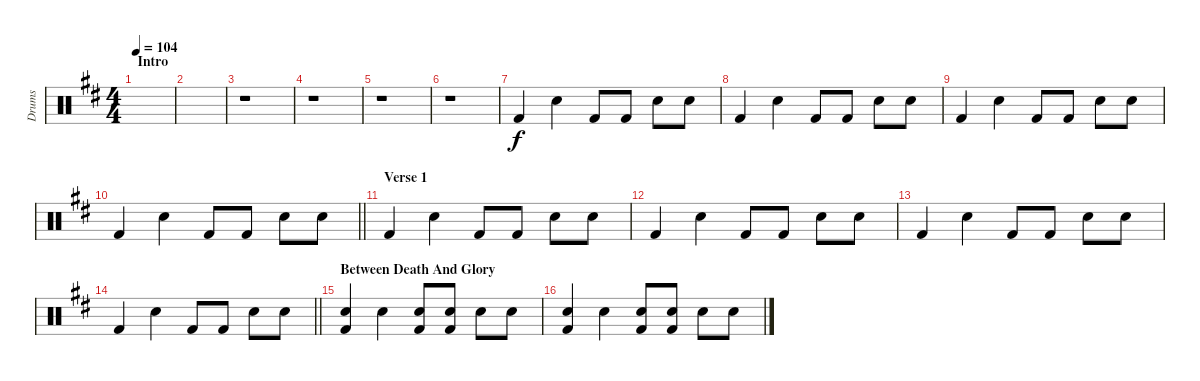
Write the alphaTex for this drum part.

\track ("Drums" "Drums") {instrument percussion}
\staff {score}
\articulation defaults
\ts (4 4)
\section ("" "Intro")
\tempo 104
\clef neutral
\ks d
|
|
r.1 |
r.1 |
r.1 |
r.1 |
"Kick (hit) 2".4 "Electric Snare (hit)".4 "Kick (hit) 2".8 "Kick (hit) 2".8 "Electric Snare (hit)".8 "Electric Snare (hit)".8 |
"Kick (hit) 2".4 "Electric Snare (hit)".4 "Kick (hit) 2".8 "Kick (hit) 2".8 "Electric Snare (hit)".8 "Electric Snare (hit)".8 |
"Kick (hit) 2".4 "Electric Snare (hit)".4 "Kick (hit) 2".8 "Kick (hit) 2".8 "Electric Snare (hit)".8 "Electric Snare (hit)".8 |
\barLineRight lightlight "Kick (hit) 2".4 "Electric Snare (hit)".4 "Kick (hit) 2".8 "Kick (hit) 2".8 "Electric Snare (hit)".8 "Electric Snare (hit)".8
|
\section ("" "Verse 1")
"Kick (hit) 2".4 "Electric Snare (hit)".4 "Kick (hit) 2".8 "Kick (hit) 2".8 "Electric Snare (hit)".8 "Electric Snare (hit)".8 |
"Kick (hit) 2".4 "Electric Snare (hit)".4 "Kick (hit) 2".8 "Kick (hit) 2".8 "Electric Snare (hit)".8 "Electric Snare (hit)".8 |
"Kick (hit) 2".4 "Electric Snare (hit)".4 "Kick (hit) 2".8 "Kick (hit) 2".8 "Electric Snare (hit)".8 "Electric Snare (hit)".8 |
\barLineRight lightlight "Kick (hit) 2".4 "Electric Snare (hit)".4 "Kick (hit) 2".8 "Kick (hit) 2".8 "Electric Snare (hit)".8 "Electric Snare (hit)".8
|
\section ("" "Between Death And Glory")
("Electric Snare (hit)" "Kick (hit) 2").4 "Electric Snare (hit)".4 ("Electric Snare (hit)" "Kick (hit) 2").8 ("Electric Snare (hit)" "Kick (hit) 2").8 "Electric Snare (hit)".8 "Electric Snare (hit)".8 |
("Electric Snare (hit)" "Kick (hit) 2").4 "Electric Snare (hit)".4 ("Electric Snare (hit)" "Kick (hit) 2").8 ("Electric Snare (hit)" "Kick (hit) 2").8 "Electric Snare (hit)".8 "Electric Snare (hit)".8
